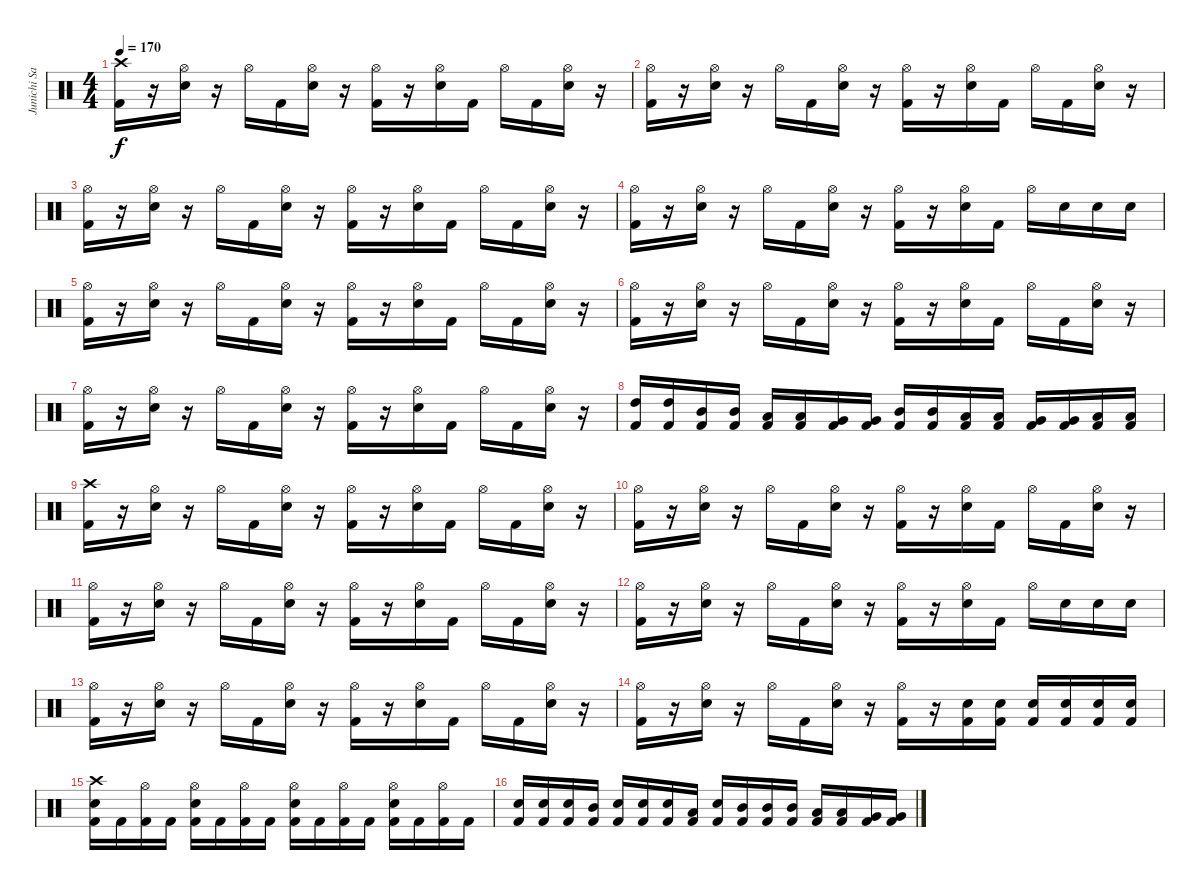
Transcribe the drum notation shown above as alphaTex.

\track ("Junichi Sato" "Junichi Sa") {instrument percussion}
\staff {score}
\articulation defaults
\ts (4 4)
\tempo 170
\clef neutral
\ks c
("Crash high (hit)" "Kick (hit) 2").16{dy f} r.16 ("Hi-Hat (open)" "Electric Snare (hit)").16 r.16 "Hi-Hat (open)".16 "Kick (hit) 2".16 ("Hi-Hat (open)" "Electric Snare (hit)").16 r.16 ("Hi-Hat (open)" "Kick (hit) 2").16 r.16 ("Hi-Hat (open)" "Electric Snare (hit)").16 "Kick (hit) 2".16 "Hi-Hat (open)".16 "Kick (hit) 2".16 ("Hi-Hat (open)" "Electric Snare (hit)").16 r.16 |
("Hi-Hat (open)" "Kick (hit) 2").16 r.16 ("Hi-Hat (open)" "Electric Snare (hit)").16 r.16 "Hi-Hat (open)".16 "Kick (hit) 2".16 ("Hi-Hat (open)" "Electric Snare (hit)").16 r.16 ("Hi-Hat (open)" "Kick (hit) 2").16 r.16 ("Hi-Hat (open)" "Electric Snare (hit)").16 "Kick (hit) 2".16 "Hi-Hat (open)".16 "Kick (hit) 2".16 ("Hi-Hat (open)" "Electric Snare (hit)").16 r.16 |
("Hi-Hat (open)" "Kick (hit) 2").16 r.16 ("Hi-Hat (open)" "Electric Snare (hit)").16 r.16 "Hi-Hat (open)".16 "Kick (hit) 2".16 ("Hi-Hat (open)" "Electric Snare (hit)").16 r.16 ("Hi-Hat (open)" "Kick (hit) 2").16 r.16 ("Hi-Hat (open)" "Electric Snare (hit)").16 "Kick (hit) 2".16 "Hi-Hat (open)".16 "Kick (hit) 2".16 ("Hi-Hat (open)" "Electric Snare (hit)").16 r.16 |
("Hi-Hat (open)" "Kick (hit) 2").16 r.16 ("Hi-Hat (open)" "Electric Snare (hit)").16 r.16 "Hi-Hat (open)".16 "Kick (hit) 2".16 ("Hi-Hat (open)" "Electric Snare (hit)").16 r.16 ("Hi-Hat (open)" "Kick (hit) 2").16 r.16 ("Hi-Hat (open)" "Electric Snare (hit)").16 "Kick (hit) 2".16 "Hi-Hat (open)".16 "Electric Snare (hit)".16 "Electric Snare (hit)".16 "Electric Snare (hit)".16 |
("Hi-Hat (open)" "Kick (hit) 2").16 r.16 ("Hi-Hat (open)" "Electric Snare (hit)").16 r.16 "Hi-Hat (open)".16 "Kick (hit) 2".16 ("Hi-Hat (open)" "Electric Snare (hit)").16 r.16 ("Hi-Hat (open)" "Kick (hit) 2").16 r.16 ("Hi-Hat (open)" "Electric Snare (hit)").16 "Kick (hit) 2".16 "Hi-Hat (open)".16 "Kick (hit) 2".16 ("Hi-Hat (open)" "Electric Snare (hit)").16 r.16 |
("Hi-Hat (open)" "Kick (hit) 2").16 r.16 ("Hi-Hat (open)" "Electric Snare (hit)").16 r.16 "Hi-Hat (open)".16 "Kick (hit) 2".16 ("Hi-Hat (open)" "Electric Snare (hit)").16 r.16 ("Hi-Hat (open)" "Kick (hit) 2").16 r.16 ("Hi-Hat (open)" "Electric Snare (hit)").16 "Kick (hit) 2".16 "Hi-Hat (open)".16 "Kick (hit) 2".16 ("Hi-Hat (open)" "Electric Snare (hit)").16 r.16 |
("Hi-Hat (open)" "Kick (hit) 2").16 r.16 ("Hi-Hat (open)" "Electric Snare (hit)").16 r.16 "Hi-Hat (open)".16 "Kick (hit) 2".16 ("Hi-Hat (open)" "Electric Snare (hit)").16 r.16 ("Hi-Hat (open)" "Kick (hit) 2").16 r.16 ("Hi-Hat (open)" "Electric Snare (hit)").16 "Kick (hit) 2".16 "Hi-Hat (open)".16 "Kick (hit) 2".16 ("Hi-Hat (open)" "Electric Snare (hit)").16 r.16 |
("High Tom (hit)" "Kick (hit) 2").16 ("High Tom (hit)" "Kick (hit) 2").16 ("Mid Tom (hit)" "Kick (hit) 2").16 ("Mid Tom (hit)" "Kick (hit) 2").16 ("Low Tom (hit)" "Kick (hit) 2").16 ("Low Tom (hit)" "Kick (hit) 2").16 ("Very Low Tom (hit)" "Kick (hit) 2").16 ("Very Low Tom (hit)" "Kick (hit) 2").16 ("Mid Tom (hit)" "Kick (hit) 2").16 ("Mid Tom (hit)" "Kick (hit) 2").16 ("Low Tom (hit)" "Kick (hit) 2").16 ("Low Tom (hit)" "Kick (hit) 2").16 ("Very Low Tom (hit)" "Kick (hit) 2").16 ("Very Low Tom (hit)" "Kick (hit) 2").16 ("Low Floor Tom (hit)" "Kick (hit) 2").16 ("Low Floor Tom (hit)" "Kick (hit) 2").16 |
("Crash high (hit)" "Kick (hit) 2").16 r.16 ("Hi-Hat (open)" "Electric Snare (hit)").16 r.16 "Hi-Hat (open)".16 "Kick (hit) 2".16 ("Hi-Hat (open)" "Electric Snare (hit)").16 r.16 ("Hi-Hat (open)" "Kick (hit) 2").16 r.16 ("Hi-Hat (open)" "Electric Snare (hit)").16 "Kick (hit) 2".16 "Hi-Hat (open)".16 "Kick (hit) 2".16 ("Hi-Hat (open)" "Electric Snare (hit)").16 r.16 |
("Hi-Hat (open)" "Kick (hit) 2").16 r.16 ("Hi-Hat (open)" "Electric Snare (hit)").16 r.16 "Hi-Hat (open)".16 "Kick (hit) 2".16 ("Hi-Hat (open)" "Electric Snare (hit)").16 r.16 ("Hi-Hat (open)" "Kick (hit) 2").16 r.16 ("Hi-Hat (open)" "Electric Snare (hit)").16 "Kick (hit) 2".16 "Hi-Hat (open)".16 "Kick (hit) 2".16 ("Hi-Hat (open)" "Electric Snare (hit)").16 r.16 |
("Hi-Hat (open)" "Kick (hit) 2").16 r.16 ("Hi-Hat (open)" "Electric Snare (hit)").16 r.16 "Hi-Hat (open)".16 "Kick (hit) 2".16 ("Hi-Hat (open)" "Electric Snare (hit)").16 r.16 ("Hi-Hat (open)" "Kick (hit) 2").16 r.16 ("Hi-Hat (open)" "Electric Snare (hit)").16 "Kick (hit) 2".16 "Hi-Hat (open)".16 "Kick (hit) 2".16 ("Hi-Hat (open)" "Electric Snare (hit)").16 r.16 |
("Hi-Hat (open)" "Kick (hit) 2").16 r.16 ("Hi-Hat (open)" "Electric Snare (hit)").16 r.16 "Hi-Hat (open)".16 "Kick (hit) 2".16 ("Hi-Hat (open)" "Electric Snare (hit)").16 r.16 ("Hi-Hat (open)" "Kick (hit) 2").16 r.16 ("Hi-Hat (open)" "Electric Snare (hit)").16 "Kick (hit) 2".16 "Hi-Hat (open)".16 "Electric Snare (hit)".16 "Electric Snare (hit)".16 "Electric Snare (hit)".16 |
("Hi-Hat (open)" "Kick (hit) 2").16 r.16 ("Hi-Hat (open)" "Electric Snare (hit)").16 r.16 "Hi-Hat (open)".16 "Kick (hit) 2".16 ("Hi-Hat (open)" "Electric Snare (hit)").16 r.16 ("Hi-Hat (open)" "Kick (hit) 2").16 r.16 ("Hi-Hat (open)" "Electric Snare (hit)").16 "Kick (hit) 2".16 "Hi-Hat (open)".16 "Kick (hit) 2".16 ("Hi-Hat (open)" "Electric Snare (hit)").16 r.16 |
("Hi-Hat (open)" "Kick (hit) 2").16 r.16 ("Hi-Hat (open)" "Electric Snare (hit)").16 r.16 "Hi-Hat (open)".16 "Kick (hit) 2".16 ("Hi-Hat (open)" "Electric Snare (hit)").16 r.16 ("Hi-Hat (open)" "Kick (hit) 2").16 r.16 ("Electric Snare (hit)" "Kick (hit) 2").16 ("Electric Snare (hit)" "Kick (hit) 2").16 ("Electric Snare (hit)" "Kick (hit) 2").16 ("Electric Snare (hit)" "Kick (hit) 2").16 ("Electric Snare (hit)" "Kick (hit) 2").16 ("Electric Snare (hit)" "Kick (hit) 2").16 |
("Crash high (hit)" "Electric Snare (hit)" "Kick (hit) 2").16 "Kick (hit) 2".16 ("Hi-Hat (open)" "Kick (hit) 2").16 "Kick (hit) 2".16 ("Hi-Hat (open)" "Electric Snare (hit)" "Kick (hit) 2").16 "Kick (hit) 2".16 ("Hi-Hat (open)" "Kick (hit) 2").16 "Kick (hit) 2".16 ("Hi-Hat (open)" "Electric Snare (hit)" "Kick (hit) 2").16 "Kick (hit) 2".16 ("Hi-Hat (open)" "Kick (hit) 2").16 "Kick (hit) 2".16 ("Hi-Hat (open)" "Electric Snare (hit)" "Kick (hit) 2").16 "Kick (hit) 2".16 ("Hi-Hat (open)" "Kick (hit) 2").16 "Kick (hit) 2".16 |
("Electric Snare (hit)" "Kick (hit) 2").16 ("Electric Snare (hit)" "Kick (hit) 2").16 ("Electric Snare (hit)" "Kick (hit) 2").16 ("Mid Tom (hit)" "Kick (hit) 2").16 ("Electric Snare (hit)" "Kick (hit) 2").16 ("Electric Snare (hit)" "Kick (hit) 2").16 ("Electric Snare (hit)" "Kick (hit) 2").16 ("Low Tom (hit)" "Kick (hit) 2").16 ("Electric Snare (hit)" "Kick (hit) 2").16 ("Mid Tom (hit)" "Kick (hit) 2").16 ("Mid Tom (hit)" "Kick (hit) 2").16 ("Mid Tom (hit)" "Kick (hit) 2").16 ("Low Tom (hit)" "Kick (hit) 2").16 ("Low Tom (hit)" "Kick (hit) 2").16 ("Very Low Tom (hit)" "Kick (hit) 2").16 ("Very Low Tom (hit)" "Kick (hit) 2").16
